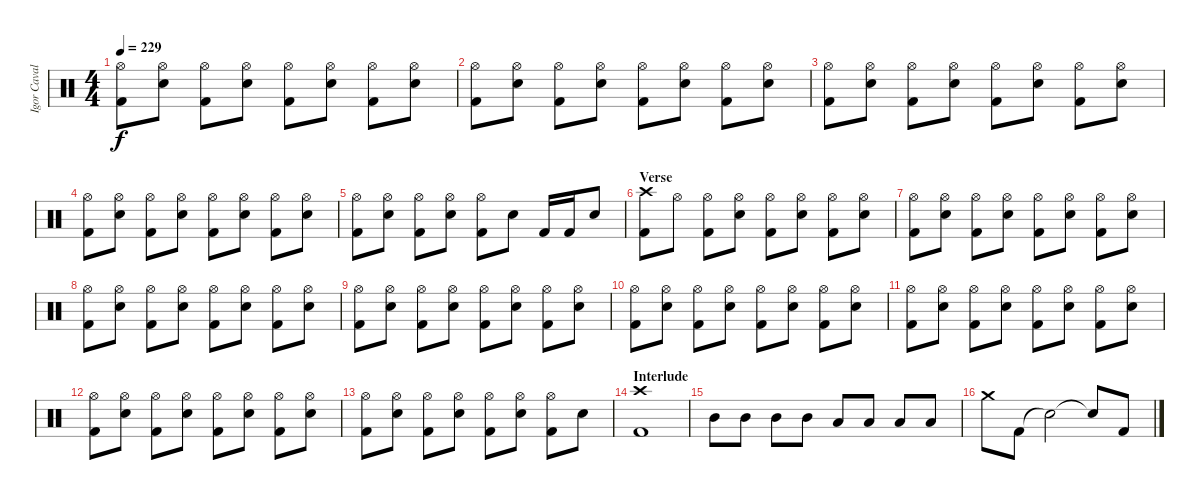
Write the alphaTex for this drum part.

\track ("Igor Cavalera" "Igor Caval") {instrument percussion}
\staff {score}
\articulation defaults
\ts (4 4)
\tempo 229
\clef neutral
\ks c
("Kick (hit) 2" "Hi-Hat (open)").8{dy f} ("Snare (hit) 2" "Hi-Hat (open)").8 ("Kick (hit) 2" "Hi-Hat (open)").8 ("Snare (hit) 2" "Hi-Hat (open)").8 ("Kick (hit) 2" "Hi-Hat (open)").8 ("Snare (hit) 2" "Hi-Hat (open)").8 ("Kick (hit) 2" "Hi-Hat (open)").8 ("Snare (hit) 2" "Hi-Hat (open)").8 |
("Kick (hit) 2" "Hi-Hat (open)").8 ("Snare (hit) 2" "Hi-Hat (open)").8 ("Kick (hit) 2" "Hi-Hat (open)").8 ("Snare (hit) 2" "Hi-Hat (open)").8 ("Kick (hit) 2" "Hi-Hat (open)").8 ("Snare (hit) 2" "Hi-Hat (open)").8 ("Kick (hit) 2" "Hi-Hat (open)").8 ("Snare (hit) 2" "Hi-Hat (open)").8 |
("Kick (hit) 2" "Hi-Hat (open)").8 ("Snare (hit) 2" "Hi-Hat (open)").8 ("Kick (hit) 2" "Hi-Hat (open)").8 ("Snare (hit) 2" "Hi-Hat (open)").8 ("Kick (hit) 2" "Hi-Hat (open)").8 ("Snare (hit) 2" "Hi-Hat (open)").8 ("Kick (hit) 2" "Hi-Hat (open)").8 ("Snare (hit) 2" "Hi-Hat (open)").8 |
("Kick (hit) 2" "Hi-Hat (open)").8 ("Snare (hit) 2" "Hi-Hat (open)").8 ("Kick (hit) 2" "Hi-Hat (open)").8 ("Snare (hit) 2" "Hi-Hat (open)").8 ("Kick (hit) 2" "Hi-Hat (open)").8 ("Snare (hit) 2" "Hi-Hat (open)").8 ("Kick (hit) 2" "Hi-Hat (open)").8 ("Snare (hit) 2" "Hi-Hat (open)").8 |
("Kick (hit) 2" "Hi-Hat (open)").8 ("Snare (hit) 2" "Hi-Hat (open)").8 ("Kick (hit) 2" "Hi-Hat (open)").8 ("Snare (hit) 2" "Hi-Hat (open)").8 ("Kick (hit) 2" "Hi-Hat (open)").8 "Snare (hit) 2".8 "Kick (hit) 2".16 "Kick (hit) 2".16 "Snare (hit) 2".8 |
\section ("" "Verse ")
("Kick (hit) 2" "Crash high (hit)").8 "Hi-Hat (open)".8 ("Kick (hit) 2" "Hi-Hat (open)").8 ("Snare (hit) 2" "Hi-Hat (open)").8 ("Kick (hit) 2" "Hi-Hat (open)").8 ("Snare (hit) 2" "Hi-Hat (open)").8 ("Kick (hit) 2" "Hi-Hat (open)").8 ("Snare (hit) 2" "Hi-Hat (open)").8 |
("Kick (hit) 2" "Hi-Hat (open)").8 ("Snare (hit) 2" "Hi-Hat (open)").8 ("Kick (hit) 2" "Hi-Hat (open)").8 ("Snare (hit) 2" "Hi-Hat (open)").8 ("Kick (hit) 2" "Hi-Hat (open)").8 ("Snare (hit) 2" "Hi-Hat (open)").8 ("Kick (hit) 2" "Hi-Hat (open)").8 ("Snare (hit) 2" "Hi-Hat (open)").8 |
("Kick (hit) 2" "Hi-Hat (open)").8 ("Snare (hit) 2" "Hi-Hat (open)").8 ("Kick (hit) 2" "Hi-Hat (open)").8 ("Snare (hit) 2" "Hi-Hat (open)").8 ("Kick (hit) 2" "Hi-Hat (open)").8 ("Snare (hit) 2" "Hi-Hat (open)").8 ("Kick (hit) 2" "Hi-Hat (open)").8 ("Snare (hit) 2" "Hi-Hat (open)").8 |
("Kick (hit) 2" "Hi-Hat (open)").8 ("Snare (hit) 2" "Hi-Hat (open)").8 ("Kick (hit) 2" "Hi-Hat (open)").8 ("Snare (hit) 2" "Hi-Hat (open)").8 ("Kick (hit) 2" "Hi-Hat (open)").8 ("Snare (hit) 2" "Hi-Hat (open)").8 ("Kick (hit) 2" "Hi-Hat (open)").8 ("Snare (hit) 2" "Hi-Hat (open)").8 |
("Kick (hit) 2" "Hi-Hat (open)").8 ("Snare (hit) 2" "Hi-Hat (open)").8 ("Kick (hit) 2" "Hi-Hat (open)").8 ("Snare (hit) 2" "Hi-Hat (open)").8 ("Kick (hit) 2" "Hi-Hat (open)").8 ("Snare (hit) 2" "Hi-Hat (open)").8 ("Kick (hit) 2" "Hi-Hat (open)").8 ("Snare (hit) 2" "Hi-Hat (open)").8 |
("Kick (hit) 2" "Hi-Hat (open)").8 ("Snare (hit) 2" "Hi-Hat (open)").8 ("Kick (hit) 2" "Hi-Hat (open)").8 ("Snare (hit) 2" "Hi-Hat (open)").8 ("Kick (hit) 2" "Hi-Hat (open)").8 ("Snare (hit) 2" "Hi-Hat (open)").8 ("Kick (hit) 2" "Hi-Hat (open)").8 ("Snare (hit) 2" "Hi-Hat (open)").8 |
("Kick (hit) 2" "Hi-Hat (open)").8 ("Snare (hit) 2" "Hi-Hat (open)").8 ("Kick (hit) 2" "Hi-Hat (open)").8 ("Snare (hit) 2" "Hi-Hat (open)").8 ("Kick (hit) 2" "Hi-Hat (open)").8 ("Snare (hit) 2" "Hi-Hat (open)").8 ("Kick (hit) 2" "Hi-Hat (open)").8 ("Snare (hit) 2" "Hi-Hat (open)").8 |
("Kick (hit) 2" "Hi-Hat (open)").8 ("Snare (hit) 2" "Hi-Hat (open)").8 ("Kick (hit) 2" "Hi-Hat (open)").8 ("Snare (hit) 2" "Hi-Hat (open)").8 ("Kick (hit) 2" "Hi-Hat (open)").8 ("Snare (hit) 2" "Hi-Hat (open)").8 ("Kick (hit) 2" "Hi-Hat (open)").8 "Snare (hit) 2".8 |
\section ("" "Interlude")
("Kick (hit) 2" "Crash high (hit)").1 |
"Mid Tom (hit)".8 "Mid Tom (hit)".8 "Mid Tom (hit)".8 "Mid Tom (hit)".8 "Low Tom (hit)".8 "Low Tom (hit)".8 "Low Tom (hit)".8 "Low Tom (hit)".8 |
"Crash medium (hit)".8 "Kick (hit) 2".8 "Snare (hit)"{t}.2 "Snare (hit)"{t}.8 "Kick (hit) 2".8
